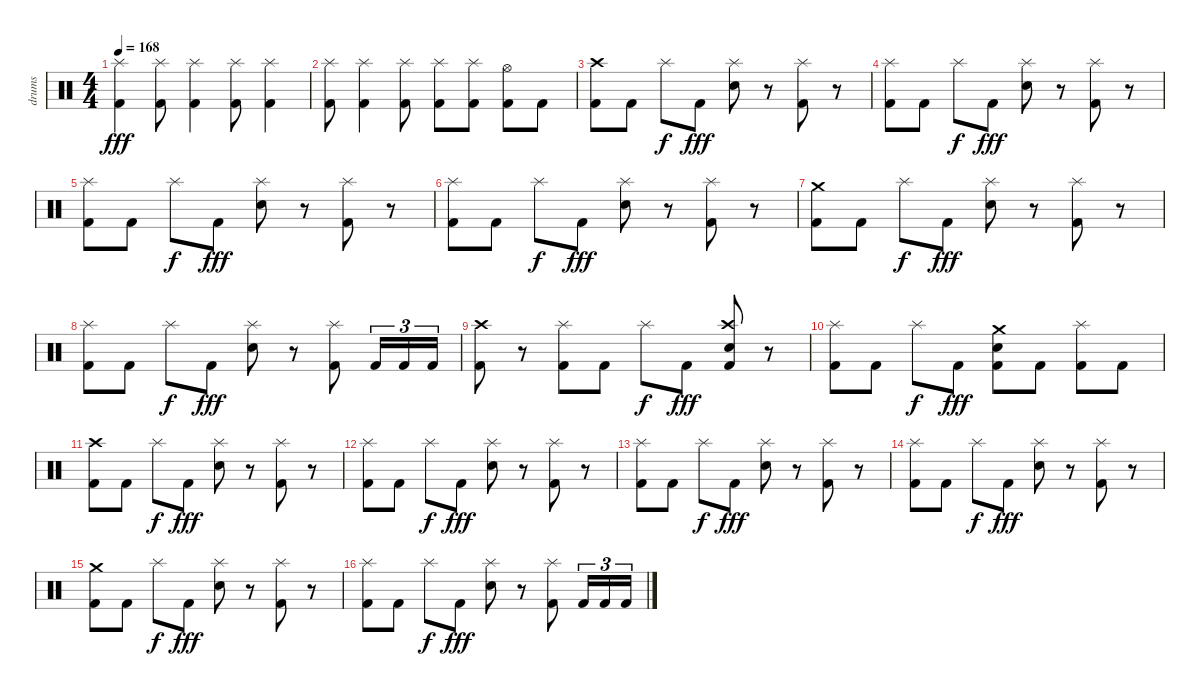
\track ("drums" "drums") {instrument percussion}
\staff {score}
\articulation defaults
\ts (4 4)
\tempo 168
\clef neutral
\ks c
("Splash (hit)" "Kick (hit) 2").4{dy fff} ("Splash (hit)" "Kick (hit) 2").8 ("Splash (hit)" "Kick (hit) 2").4 ("Splash (hit)" "Kick (hit) 2").8 ("Splash (hit)" "Kick (hit) 2").4 |
("Splash (hit)" "Kick (hit) 2").8 ("Splash (hit)" "Kick (hit) 2").4 ("Splash (hit)" "Kick (hit) 2").8 ("Splash (hit)" "Kick (hit) 2").8 ("Splash (hit)" "Kick (hit) 2").8 ("Hi-Hat (open)" "Kick (hit) 2").8 "Kick (hit) 2".8 |
("Crash high (hit)" "Kick (hit) 2").8 "Kick (hit) 2".8 "Splash (hit)".8{dy f} "Kick (hit) 2".8{dy fff} ("Splash (hit)" "Snare (hit) 2").8 r.8 ("Splash (hit)" "Kick (hit) 2").8 r.8 |
("Splash (hit)" "Kick (hit) 2").8 "Kick (hit) 2".8 "Splash (hit)".8{dy f} "Kick (hit) 2".8{dy fff} ("Splash (hit)" "Snare (hit) 2").8 r.8 ("Splash (hit)" "Kick (hit) 2").8 r.8 |
("Splash (hit)" "Kick (hit) 2").8 "Kick (hit) 2".8 "Splash (hit)".8{dy f} "Kick (hit) 2".8{dy fff} ("Splash (hit)" "Snare (hit) 2").8 r.8 ("Splash (hit)" "Kick (hit) 2").8 r.8 |
("Splash (hit)" "Kick (hit) 2").8 "Kick (hit) 2".8 "Splash (hit)".8{dy f} "Kick (hit) 2".8{dy fff} ("Splash (hit)" "Snare (hit) 2").8 r.8 ("Splash (hit)" "Kick (hit) 2").8 r.8 |
("Crash medium (hit)" "Kick (hit) 2").8 "Kick (hit) 2".8 "Splash (hit)".8{dy f} "Kick (hit) 2".8{dy fff} ("Splash (hit)" "Snare (hit) 2").8 r.8 ("Splash (hit)" "Kick (hit) 2").8 r.8 |
("Splash (hit)" "Kick (hit) 2").8 "Kick (hit) 2".8 "Splash (hit)".8{dy f} "Kick (hit) 2".8{dy fff} ("Splash (hit)" "Snare (hit) 2").8 r.8 ("Splash (hit)" "Kick (hit) 2").8 "Kick (hit) 2".16{tu (3 2)} "Kick (hit) 2".16{tu (3 2)} "Kick (hit) 2".16{tu (3 2)} |
("Crash high (hit)" "Kick (hit) 2").8 r.8 ("Splash (hit)" "Kick (hit) 2").8 "Kick (hit) 2".8 "Splash (hit)".8{dy f} "Kick (hit) 2".8{dy fff} ("Crash high (hit)" "Snare (hit) 2" "Kick (hit) 2").8 r.8 |
("Splash (hit)" "Kick (hit) 2").8 "Kick (hit) 2".8 "Splash (hit)".8{dy f} "Kick (hit) 2".8{dy fff} ("Crash medium (hit)" "Snare (hit) 2" "Kick (hit) 2").8 "Kick (hit) 2".8 ("Splash (hit)" "Kick (hit) 2").8 "Kick (hit) 2".8 |
("Crash high (hit)" "Kick (hit) 2").8 "Kick (hit) 2".8 "Splash (hit)".8{dy f} "Kick (hit) 2".8{dy fff} ("Splash (hit)" "Snare (hit) 2").8 r.8 ("Splash (hit)" "Kick (hit) 2").8 r.8 |
("Splash (hit)" "Kick (hit) 2").8 "Kick (hit) 2".8 "Splash (hit)".8{dy f} "Kick (hit) 2".8{dy fff} ("Splash (hit)" "Snare (hit) 2").8 r.8 ("Splash (hit)" "Kick (hit) 2").8 r.8 |
("Splash (hit)" "Kick (hit) 2").8 "Kick (hit) 2".8 "Splash (hit)".8{dy f} "Kick (hit) 2".8{dy fff} ("Splash (hit)" "Snare (hit) 2").8 r.8 ("Splash (hit)" "Kick (hit) 2").8 r.8 |
("Splash (hit)" "Kick (hit) 2").8 "Kick (hit) 2".8 "Splash (hit)".8{dy f} "Kick (hit) 2".8{dy fff} ("Splash (hit)" "Snare (hit) 2").8 r.8 ("Splash (hit)" "Kick (hit) 2").8 r.8 |
("Crash medium (hit)" "Kick (hit) 2").8 "Kick (hit) 2".8 "Splash (hit)".8{dy f} "Kick (hit) 2".8{dy fff} ("Splash (hit)" "Snare (hit) 2").8 r.8 ("Splash (hit)" "Kick (hit) 2").8 r.8 |
("Splash (hit)" "Kick (hit) 2").8 "Kick (hit) 2".8 "Splash (hit)".8{dy f} "Kick (hit) 2".8{dy fff} ("Splash (hit)" "Snare (hit) 2").8 r.8 ("Splash (hit)" "Kick (hit) 2").8 "Kick (hit) 2".16{tu (3 2)} "Kick (hit) 2".16{tu (3 2)} "Kick (hit) 2".16{tu (3 2)}
